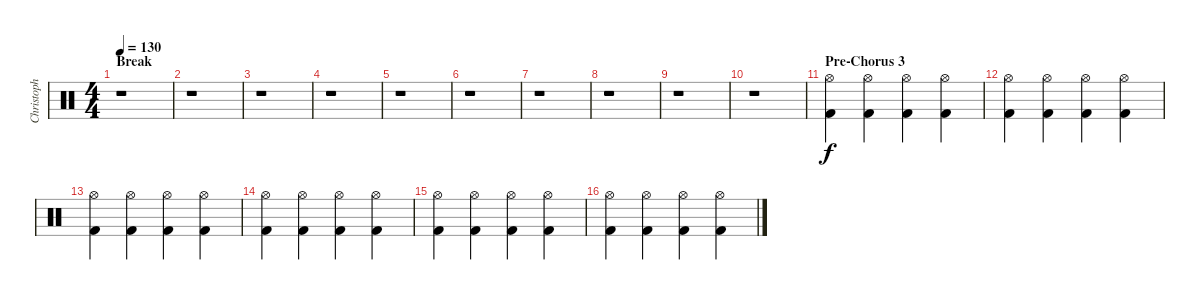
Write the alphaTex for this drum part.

\track ("Christoph Schneider" "Christoph ") {instrument percussion}
\staff {score}
\articulation defaults
\ts (4 4)
\section ("" "Break")
\tempo 130
\clef neutral
\ks c
r.1{dy f} |
r.1 |
r.1 |
r.1 |
r.1 |
r.1 |
r.1 |
r.1 |
r.1 |
r.1 |
\section ("" "Pre-Chorus 3")
("Hi-Hat (open)" "Kick (hit) 2").4 ("Hi-Hat (open)" "Kick (hit) 2").4 ("Hi-Hat (open)" "Kick (hit) 2").4 ("Hi-Hat (open)" "Kick (hit) 2").4 |
("Hi-Hat (open)" "Kick (hit) 2").4 ("Hi-Hat (open)" "Kick (hit) 2").4 ("Hi-Hat (open)" "Kick (hit) 2").4 ("Hi-Hat (open)" "Kick (hit) 2").4 |
("Hi-Hat (open)" "Kick (hit) 2").4 ("Hi-Hat (open)" "Kick (hit) 2").4 ("Hi-Hat (open)" "Kick (hit) 2").4 ("Hi-Hat (open)" "Kick (hit) 2").4 |
("Hi-Hat (open)" "Kick (hit) 2").4 ("Hi-Hat (open)" "Kick (hit) 2").4 ("Hi-Hat (open)" "Kick (hit) 2").4 ("Hi-Hat (open)" "Kick (hit) 2").4 |
("Hi-Hat (open)" "Kick (hit) 2").4 ("Hi-Hat (open)" "Kick (hit) 2").4 ("Hi-Hat (open)" "Kick (hit) 2").4 ("Hi-Hat (open)" "Kick (hit) 2").4 |
("Hi-Hat (open)" "Kick (hit) 2").4 ("Hi-Hat (open)" "Kick (hit) 2").4 ("Hi-Hat (open)" "Kick (hit) 2").4 ("Hi-Hat (open)" "Kick (hit) 2").4
